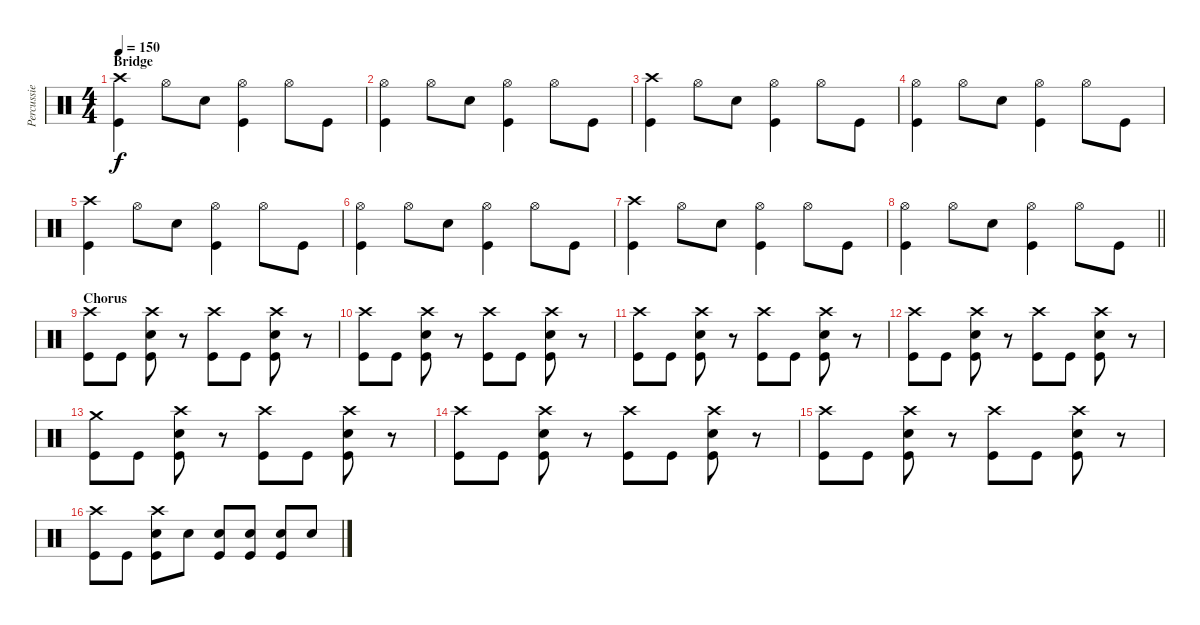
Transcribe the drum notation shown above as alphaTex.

\track ("Percussie" "Percussie") {instrument percussion}
\staff {score}
\articulation defaults
\ts (4 4)
\section ("" "Bridge")
\tempo 150
\clef neutral
\ks c
("Crash high (hit)" "Kick (hit)").4{dy f} "Hi-Hat (open)".8 "Snare (hit) 2".8 ("Hi-Hat (open)" "Kick (hit)").4 "Hi-Hat (open)".8 "Kick (hit)".8 |
("Hi-Hat (open)" "Kick (hit)").4 "Hi-Hat (open)".8 "Snare (hit) 2".8 ("Hi-Hat (open)" "Kick (hit)").4 "Hi-Hat (open)".8 "Kick (hit)".8 |
("Crash high (hit)" "Kick (hit)").4 "Hi-Hat (open)".8 "Snare (hit) 2".8 ("Hi-Hat (open)" "Kick (hit)").4 "Hi-Hat (open)".8 "Kick (hit)".8 |
("Hi-Hat (open)" "Kick (hit)").4 "Hi-Hat (open)".8 "Snare (hit) 2".8 ("Hi-Hat (open)" "Kick (hit)").4 "Hi-Hat (open)".8 "Kick (hit)".8 |
("Crash high (hit)" "Kick (hit)").4 "Hi-Hat (open)".8 "Snare (hit) 2".8 ("Hi-Hat (open)" "Kick (hit)").4 "Hi-Hat (open)".8 "Kick (hit)".8 |
("Hi-Hat (open)" "Kick (hit)").4 "Hi-Hat (open)".8 "Snare (hit) 2".8 ("Hi-Hat (open)" "Kick (hit)").4 "Hi-Hat (open)".8 "Kick (hit)".8 |
("Crash high (hit)" "Kick (hit)").4 "Hi-Hat (open)".8 "Snare (hit) 2".8 ("Hi-Hat (open)" "Kick (hit)").4 "Hi-Hat (open)".8 "Kick (hit)".8 |
\barLineRight lightlight
("Hi-Hat (open)" "Kick (hit)").4 "Hi-Hat (open)".8 "Snare (hit) 2".8 ("Hi-Hat (open)" "Kick (hit)").4 "Hi-Hat (open)".8 "Kick (hit)".8 |
\section ("" "Chorus")
("Crash high (hit)" "Kick (hit)").8 "Kick (hit)".8 ("Crash high (hit)" "Snare (hit) 2" "Kick (hit)").8 r.8 ("Crash high (hit)" "Kick (hit)").8 "Kick (hit)".8 ("Crash high (hit)" "Snare (hit) 2" "Kick (hit)").8 r.8 |
("Crash high (hit)" "Kick (hit)").8 "Kick (hit)".8 ("Crash high (hit)" "Snare (hit) 2" "Kick (hit)").8 r.8 ("Crash high (hit)" "Kick (hit)").8 "Kick (hit)".8 ("Crash high (hit)" "Snare (hit) 2" "Kick (hit)").8 r.8 |
("Crash high (hit)" "Kick (hit)").8 "Kick (hit)".8 ("Crash high (hit)" "Snare (hit) 2" "Kick (hit)").8 r.8 ("Crash high (hit)" "Kick (hit)").8 "Kick (hit)".8 ("Crash high (hit)" "Snare (hit) 2" "Kick (hit)").8 r.8 |
("Crash high (hit)" "Kick (hit)").8 "Kick (hit)".8 ("Crash high (hit)" "Snare (hit) 2" "Kick (hit)").8 r.8 ("Crash high (hit)" "Kick (hit)").8 "Kick (hit)".8 ("Crash high (hit)" "Snare (hit) 2" "Kick (hit)").8 r.8 |
("Crash medium (hit)" "Kick (hit)").8 "Kick (hit)".8 ("Crash high (hit)" "Snare (hit) 2" "Kick (hit)").8 r.8 ("Crash high (hit)" "Kick (hit)").8 "Kick (hit)".8 ("Crash high (hit)" "Snare (hit) 2" "Kick (hit)").8 r.8 |
("Crash high (hit)" "Kick (hit)").8 "Kick (hit)".8 ("Crash high (hit)" "Snare (hit) 2" "Kick (hit)").8 r.8 ("Crash high (hit)" "Kick (hit)").8 "Kick (hit)".8 ("Crash high (hit)" "Snare (hit) 2" "Kick (hit)").8 r.8 |
("Crash high (hit)" "Kick (hit)").8 "Kick (hit)".8 ("Crash high (hit)" "Snare (hit) 2" "Kick (hit)").8 r.8 ("Crash high (hit)" "Kick (hit)").8 "Kick (hit)".8 ("Crash high (hit)" "Snare (hit) 2" "Kick (hit)").8 r.8 |
("Crash high (hit)" "Kick (hit)").8 "Kick (hit)".8 ("Crash high (hit)" "Snare (hit) 2" "Kick (hit)").8 "Snare (hit) 2".8 ("Snare (hit) 2" "Kick (hit)").8 ("Snare (hit) 2" "Kick (hit)").8 ("Snare (hit) 2" "Kick (hit)").8 "Snare (hit) 2".8
